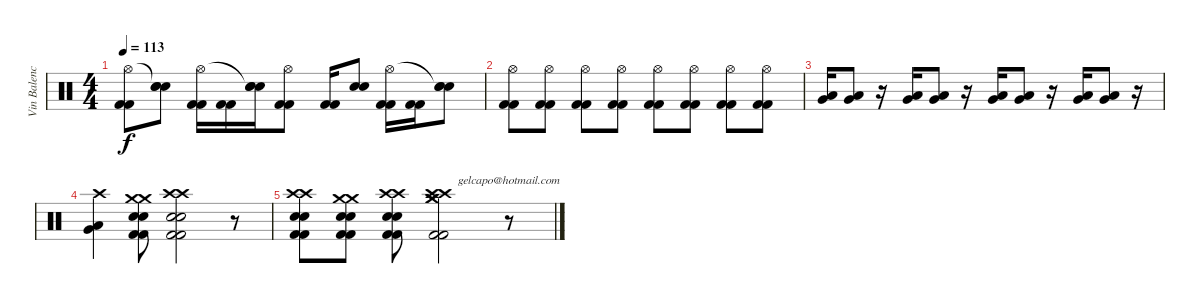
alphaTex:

\track ("Vin Balencia (bateria)" "Vin Balenc") {instrument percussion}
\staff {score}
\articulation defaults
\chord ("gelcapo@hotmail.com") {firstfret 0}
\ts (4 4)
\tempo 113
\clef neutral
\ks c
("Kick (hit) 2" "Kick (hit) 2" "Hi-Hat (open)").8{dy f} ("Snare (hit) 2" "Snare (hit) 2" "Snare (hit)"{t}).8 ("Kick (hit) 2" "Kick (hit) 2" "Hi-Hat (open)").16 ("Kick (hit) 2" "Kick (hit) 2").16 ("Snare (hit) 2" "Snare (hit) 2" "Snare (hit)"{t}).16 ("Kick (hit) 2" "Kick (hit) 2" "Hi-Hat (open)").8 ("Kick (hit) 2" "Kick (hit) 2").16 ("Snare (hit) 2" "Snare (hit) 2").8 ("Kick (hit) 2" "Kick (hit) 2" "Hi-Hat (open)").16 ("Kick (hit) 2" "Kick (hit) 2").16 ("Snare (hit) 2" "Snare (hit) 2" "Snare (hit)"{t}).8 |
("Hi-Hat (open)" "Kick (hit) 2" "Kick (hit) 2").8 ("Hi-Hat (open)" "Kick (hit) 2" "Kick (hit) 2").8 ("Hi-Hat (open)" "Kick (hit) 2" "Kick (hit) 2").8 ("Hi-Hat (open)" "Kick (hit) 2" "Kick (hit) 2").8 ("Hi-Hat (open)" "Kick (hit) 2" "Kick (hit) 2").8 ("Hi-Hat (open)" "Kick (hit) 2" "Kick (hit) 2").8 ("Hi-Hat (open)" "Kick (hit) 2" "Kick (hit) 2").8 ("Hi-Hat (open)" "Kick (hit) 2" "Kick (hit) 2").8 |
("Very Low Tom (hit)" "Low Floor Tom (hit)").16 ("Very Low Tom (hit)" "Low Floor Tom (hit)").8 r.16 ("Very Low Tom (hit)" "Low Floor Tom (hit)").16 ("Very Low Tom (hit)" "Low Floor Tom (hit)").8 r.16 ("Very Low Tom (hit)" "Low Floor Tom (hit)").16 ("Very Low Tom (hit)" "Low Floor Tom (hit)").8 r.16 ("Very Low Tom (hit)" "Low Floor Tom (hit)").16 ("Very Low Tom (hit)" "Low Floor Tom (hit)").8 r.16 |
("Very Low Tom (hit)" "Low Floor Tom (hit)" "Crash high (hit)").4 ("Crash medium (hit)" "Crash medium (hit)" "Kick (hit) 2" "Kick (hit) 2" "Snare (hit) 2" "Snare (hit) 2").8 ("Crash high (hit)" "Crash high (hit)" "Kick (hit) 2" "Kick (hit) 2" "Snare (hit) 2" "Snare (hit) 2").2 r.8 |
("Crash high (hit)" "Crash high (hit)" "Snare (hit) 2" "Snare (hit) 2" "Kick (hit) 2" "Kick (hit) 2").8 ("Crash medium (hit)" "Crash medium (hit)" "Snare (hit) 2" "Snare (hit) 2" "Kick (hit) 2" "Kick (hit) 2").8 ("Crash high (hit)" "Crash high (hit)" "Snare (hit) 2" "Snare (hit) 2" "Kick (hit) 2" "Kick (hit) 2").8 ("Crash high (hit)" "Crash high (hit)" "Crash medium (hit)" "Crash medium (hit)" "Kick (hit) 2" "Kick (hit) 2").2 r.8{ch "gelcapo@hotmail.com"}
